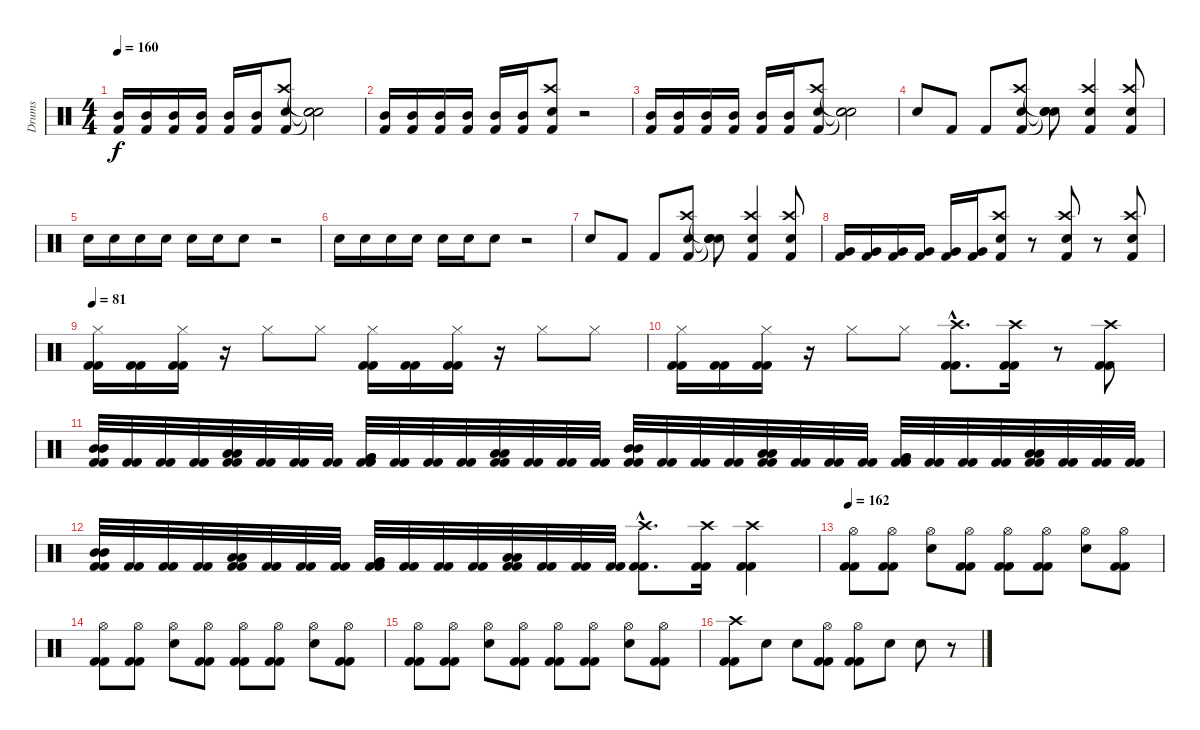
\track ("Drums" "Drums") {instrument percussion}
\staff {score}
\articulation defaults
\ts (4 4)
\tempo 160
\clef neutral
\ks c
("Mid Tom (hit)" "Kick (hit) 2").16{dy f} ("Mid Tom (hit)" "Kick (hit) 2").16 ("Mid Tom (hit)" "Kick (hit) 2").16 ("Mid Tom (hit)" "Kick (hit) 2").16 ("Mid Tom (hit)" "Kick (hit) 2").16 ("Mid Tom (hit)" "Kick (hit) 2").16 ("Crash high (hit)" "Electric Snare (hit)" "Kick (hit) 2").8 ("Snare (hit)"{t} "Snare (hit)"{t} "Snare (hit)"{t}).2 |
("Mid Tom (hit)" "Kick (hit) 2").16 ("Mid Tom (hit)" "Kick (hit) 2").16 ("Mid Tom (hit)" "Kick (hit) 2").16 ("Mid Tom (hit)" "Kick (hit) 2").16 ("Mid Tom (hit)" "Kick (hit) 2").16 ("Mid Tom (hit)" "Kick (hit) 2").16 ("Crash high (hit)" "Electric Snare (hit)" "Kick (hit) 2").8 r.2 |
("Mid Tom (hit)" "Kick (hit) 2").16 ("Mid Tom (hit)" "Kick (hit) 2").16 ("Mid Tom (hit)" "Kick (hit) 2").16 ("Mid Tom (hit)" "Kick (hit) 2").16 ("Mid Tom (hit)" "Kick (hit) 2").16 ("Mid Tom (hit)" "Kick (hit) 2").16 ("Crash high (hit)" "Electric Snare (hit)" "Kick (hit) 2").8 ("Snare (hit)"{t} "Snare (hit)"{t} "Snare (hit)"{t}).2 |
"Electric Snare (hit)".8 "Kick (hit) 2".8 "Kick (hit) 2".8 ("Crash high (hit)" "Electric Snare (hit)" "Kick (hit) 2").8 ("Snare (hit)"{t} "Snare (hit)"{t} "Snare (hit)"{t}).8 ("Crash high (hit)" "Electric Snare (hit)" "Kick (hit) 2").4 ("Crash high (hit)" "Electric Snare (hit)" "Kick (hit) 2").8 |
"Electric Snare (hit)".16 "Electric Snare (hit)".16 "Electric Snare (hit)".16 "Electric Snare (hit)".16 "Electric Snare (hit)".16 "Electric Snare (hit)".16 "Electric Snare (hit)".8 r.2 |
"Electric Snare (hit)".16 "Electric Snare (hit)".16 "Electric Snare (hit)".16 "Electric Snare (hit)".16 "Electric Snare (hit)".16 "Electric Snare (hit)".16 "Electric Snare (hit)".8 r.2 |
"Electric Snare (hit)".8 "Kick (hit) 2".8 "Kick (hit) 2".8 ("Crash high (hit)" "Electric Snare (hit)" "Kick (hit) 2").8 ("Snare (hit)"{t} "Snare (hit)"{t} "Snare (hit)"{t}).8 ("Crash high (hit)" "Electric Snare (hit)" "Kick (hit) 2").4 ("Crash high (hit)" "Electric Snare (hit)" "Kick (hit) 2").8 |
("Very Low Tom (hit)" "Kick (hit) 2").16 ("Very Low Tom (hit)" "Kick (hit) 2").16 ("Very Low Tom (hit)" "Kick (hit) 2").16 ("Very Low Tom (hit)" "Kick (hit) 2").16 ("Very Low Tom (hit)" "Kick (hit) 2").16 ("Very Low Tom (hit)" "Kick (hit) 2").16 ("Crash high (hit)" "Electric Snare (hit)" "Kick (hit) 2").8 r.8 ("Crash high (hit)" "Electric Snare (hit)" "Kick (hit) 2").8 r.8 ("Crash high (hit)" "Electric Snare (hit)" "Kick (hit) 2").8 |
\tempo 81
("Hi-Hat (closed)" "Kick (hit) 2" "Kick (hit) 2").16 ("Kick (hit) 2" "Kick (hit) 2").16 ("Hi-Hat (closed)" "Kick (hit) 2" "Kick (hit) 2").16 r.16 "Hi-Hat (closed)".8 "Hi-Hat (closed)".8 ("Hi-Hat (closed)" "Kick (hit) 2" "Kick (hit) 2").16 ("Kick (hit) 2" "Kick (hit) 2").16 ("Hi-Hat (closed)" "Kick (hit) 2" "Kick (hit) 2").16 r.16 "Hi-Hat (closed)".8 "Hi-Hat (closed)".8 |
("Hi-Hat (closed)" "Kick (hit) 2" "Kick (hit) 2").16 ("Kick (hit) 2" "Kick (hit) 2").16 ("Hi-Hat (closed)" "Kick (hit) 2" "Kick (hit) 2").16 r.16 "Hi-Hat (closed)".8 "Hi-Hat (closed)".8 ("Crash high (hit)"{hac} "Kick (hit) 2"{hac} "Kick (hit) 2"{hac}).8{d} ("Crash high (hit)" "Kick (hit) 2" "Kick (hit) 2").16 r.8 ("Crash high (hit)" "Kick (hit) 2" "Kick (hit) 2").8 |
("Mid Tom (hit)" "Mid Tom (hit)" "Kick (hit) 2" "Kick (hit) 2").32 ("Kick (hit) 2" "Kick (hit) 2").32 ("Kick (hit) 2" "Kick (hit) 2").32 ("Kick (hit) 2" "Kick (hit) 2").32 ("Low Tom (hit)" "Low Tom (hit)" "Kick (hit) 2" "Kick (hit) 2").32 ("Kick (hit) 2" "Kick (hit) 2").32 ("Kick (hit) 2" "Kick (hit) 2").32 ("Kick (hit) 2" "Kick (hit) 2").32 ("Very Low Tom (hit)" "Very Low Tom (hit)" "Kick (hit) 2" "Kick (hit) 2").32 ("Kick (hit) 2" "Kick (hit) 2").32 ("Kick (hit) 2" "Kick (hit) 2").32 ("Kick (hit) 2" "Kick (hit) 2").32 ("Low Floor Tom (hit)" "Low Floor Tom (hit)" "Kick (hit) 2" "Kick (hit) 2").32 ("Kick (hit) 2" "Kick (hit) 2").32 ("Kick (hit) 2" "Kick (hit) 2").32 ("Kick (hit) 2" "Kick (hit) 2").32 ("Mid Tom (hit)" "Mid Tom (hit)" "Kick (hit) 2" "Kick (hit) 2").32 ("Kick (hit) 2" "Kick (hit) 2").32 ("Kick (hit) 2" "Kick (hit) 2").32 ("Kick (hit) 2" "Kick (hit) 2").32 ("Low Tom (hit)" "Low Tom (hit)" "Kick (hit) 2" "Kick (hit) 2").32 ("Kick (hit) 2" "Kick (hit) 2").32 ("Kick (hit) 2" "Kick (hit) 2").32 ("Kick (hit) 2" "Kick (hit) 2").32 ("Very Low Tom (hit)" "Very Low Tom (hit)" "Kick (hit) 2" "Kick (hit) 2").32 ("Kick (hit) 2" "Kick (hit) 2").32 ("Kick (hit) 2" "Kick (hit) 2").32 ("Kick (hit) 2" "Kick (hit) 2").32 ("Low Floor Tom (hit)" "Low Floor Tom (hit)" "Kick (hit) 2" "Kick (hit) 2").32 ("Kick (hit) 2" "Kick (hit) 2").32 ("Kick (hit) 2" "Kick (hit) 2").32 ("Kick (hit) 2" "Kick (hit) 2").32 |
("Mid Tom (hit)" "Mid Tom (hit)" "Kick (hit) 2" "Kick (hit) 2").32 ("Kick (hit) 2" "Kick (hit) 2").32 ("Kick (hit) 2" "Kick (hit) 2").32 ("Kick (hit) 2" "Kick (hit) 2").32 ("Low Tom (hit)" "Low Tom (hit)" "Kick (hit) 2" "Kick (hit) 2").32 ("Kick (hit) 2" "Kick (hit) 2").32 ("Kick (hit) 2" "Kick (hit) 2").32 ("Kick (hit) 2" "Kick (hit) 2").32 ("Very Low Tom (hit)" "Very Low Tom (hit)" "Kick (hit) 2" "Kick (hit) 2").32 ("Kick (hit) 2" "Kick (hit) 2").32 ("Kick (hit) 2" "Kick (hit) 2").32 ("Kick (hit) 2" "Kick (hit) 2").32 ("Low Floor Tom (hit)" "Low Floor Tom (hit)" "Kick (hit) 2" "Kick (hit) 2").32 ("Kick (hit) 2" "Kick (hit) 2").32 ("Kick (hit) 2" "Kick (hit) 2").32 ("Kick (hit) 2" "Kick (hit) 2").32 ("Crash high (hit)"{hac} "Kick (hit) 2"{hac} "Kick (hit) 2"{hac}).8{d} ("Crash high (hit)" "Kick (hit) 2" "Kick (hit) 2").16 ("Crash high (hit)" "Kick (hit) 2" "Kick (hit) 2").4 |
\tempo 162
("Hi-Hat (open)" "Kick (hit) 2" "Kick (hit) 2").8 ("Hi-Hat (open)" "Kick (hit) 2" "Kick (hit) 2").8 ("Hi-Hat (open)" "Electric Snare (hit)").8 ("Hi-Hat (open)" "Kick (hit) 2" "Kick (hit) 2").8 ("Hi-Hat (open)" "Kick (hit) 2" "Kick (hit) 2").8 ("Hi-Hat (open)" "Kick (hit) 2" "Kick (hit) 2").8 ("Hi-Hat (open)" "Electric Snare (hit)").8 ("Hi-Hat (open)" "Kick (hit) 2" "Kick (hit) 2").8 |
("Hi-Hat (open)" "Kick (hit) 2" "Kick (hit) 2").8 ("Hi-Hat (open)" "Kick (hit) 2" "Kick (hit) 2").8 ("Hi-Hat (open)" "Electric Snare (hit)").8 ("Hi-Hat (open)" "Kick (hit) 2" "Kick (hit) 2").8 ("Hi-Hat (open)" "Kick (hit) 2" "Kick (hit) 2").8 ("Hi-Hat (open)" "Kick (hit) 2" "Kick (hit) 2").8 ("Hi-Hat (open)" "Electric Snare (hit)").8 ("Hi-Hat (open)" "Kick (hit) 2" "Kick (hit) 2").8 |
("Hi-Hat (open)" "Kick (hit) 2" "Kick (hit) 2").8 ("Hi-Hat (open)" "Kick (hit) 2" "Kick (hit) 2").8 ("Hi-Hat (open)" "Electric Snare (hit)").8 ("Hi-Hat (open)" "Kick (hit) 2" "Kick (hit) 2").8 ("Hi-Hat (open)" "Kick (hit) 2" "Kick (hit) 2").8 ("Hi-Hat (open)" "Kick (hit) 2" "Kick (hit) 2").8 ("Hi-Hat (open)" "Electric Snare (hit)").8 ("Hi-Hat (open)" "Kick (hit) 2" "Kick (hit) 2").8 |
("Crash high (hit)" "Kick (hit) 2" "Kick (hit) 2").8 "Electric Snare (hit)".8 "Electric Snare (hit)".8 ("Hi-Hat (open)" "Kick (hit) 2" "Kick (hit) 2").8 ("Hi-Hat (open)" "Kick (hit) 2" "Kick (hit) 2").8 "Electric Snare (hit)".8 "Electric Snare (hit)".8 r.8
